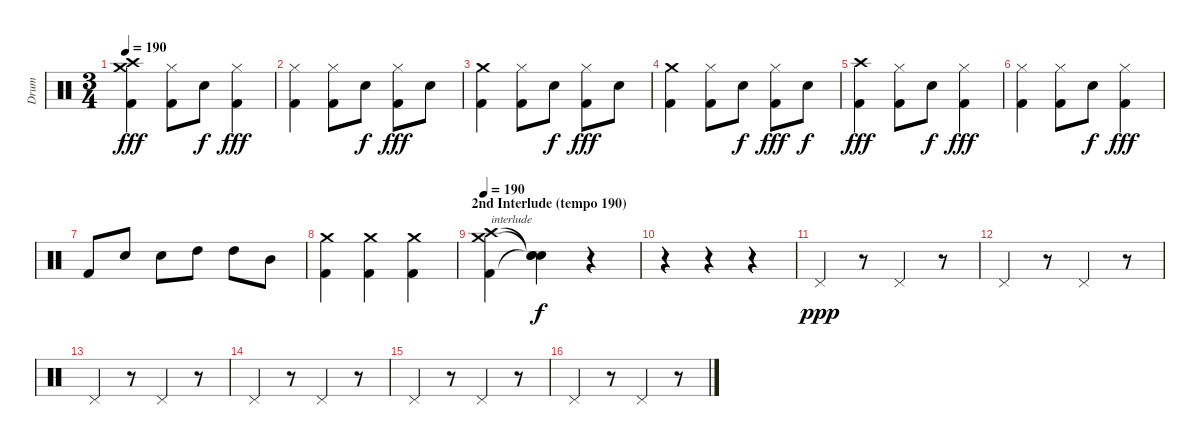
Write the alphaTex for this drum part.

\track ("Drum" "Drum") {instrument percussion}
\staff {score}
\articulation defaults
\ts (3 4)
\tempo 190
\clef neutral
\ks c
("Crash high (hit)" "Crash medium (hit)" "Kick (hit) 2").4{dy fff} ("Hi-Hat (closed)" "Kick (hit) 2").8 "Snare (hit) 2".8{dy f} ("Hi-Hat (closed)" "Kick (hit) 2").4{dy fff} |
("Hi-Hat (closed)" "Kick (hit) 2").4 ("Hi-Hat (closed)" "Kick (hit) 2").8 "Snare (hit) 2".8{dy f} ("Hi-Hat (closed)" "Kick (hit) 2").8{dy fff} "Snare (hit) 2".8 |
("Crash medium (hit)" "Kick (hit) 2").4 ("Hi-Hat (closed)" "Kick (hit) 2").8 "Snare (hit) 2".8{dy f} ("Hi-Hat (closed)" "Kick (hit) 2").8{dy fff} "Snare (hit) 2".8 |
("Crash medium (hit)" "Kick (hit) 2").4 ("Hi-Hat (closed)" "Kick (hit) 2").8 "Snare (hit) 2".8{dy f} ("Hi-Hat (closed)" "Kick (hit) 2").8{dy fff} "Snare (hit) 2".8{dy f} |
("Crash high (hit)" "Kick (hit) 2").4{dy fff} ("Hi-Hat (closed)" "Kick (hit) 2").8 "Snare (hit) 2".8{dy f} ("Hi-Hat (closed)" "Kick (hit) 2").4{dy fff} |
("Hi-Hat (closed)" "Kick (hit) 2").4 ("Hi-Hat (closed)" "Kick (hit) 2").8 "Snare (hit) 2".8{dy f} ("Hi-Hat (closed)" "Kick (hit) 2").4{dy fff} |
"Kick (hit) 2".8 "Snare (hit) 2".8 "Snare (hit) 2".8 "High Tom (hit)".8 "High Tom (hit)".8 "Mid Tom (hit)".8 |
("Crash medium (hit)" "Kick (hit) 2").4 ("Crash medium (hit)" "Kick (hit) 2").4 ("Crash medium (hit)" "Kick (hit) 2").4 |
\section ("" "2nd Interlude (tempo 190)")
\tempo 190
("Crash medium (hit)" "Crash high (hit)" "Kick (hit) 2").4{txt "interlude"} ("Snare (hit)"{t} "Snare (hit)"{t} "Snare (hit)"{t}).4{dy f} r.4 |
r.4 r.4 r.4 |
"Pedal Hi-Hat (hit)".4{dy ppp} r.8 "Pedal Hi-Hat (hit)".4 r.8 |
"Pedal Hi-Hat (hit)".4 r.8 "Pedal Hi-Hat (hit)".4 r.8 |
"Pedal Hi-Hat (hit)".4 r.8 "Pedal Hi-Hat (hit)".4 r.8 |
"Pedal Hi-Hat (hit)".4 r.8 "Pedal Hi-Hat (hit)".4 r.8 |
"Pedal Hi-Hat (hit)".4 r.8 "Pedal Hi-Hat (hit)".4 r.8 |
"Pedal Hi-Hat (hit)".4 r.8 "Pedal Hi-Hat (hit)".4 r.8
